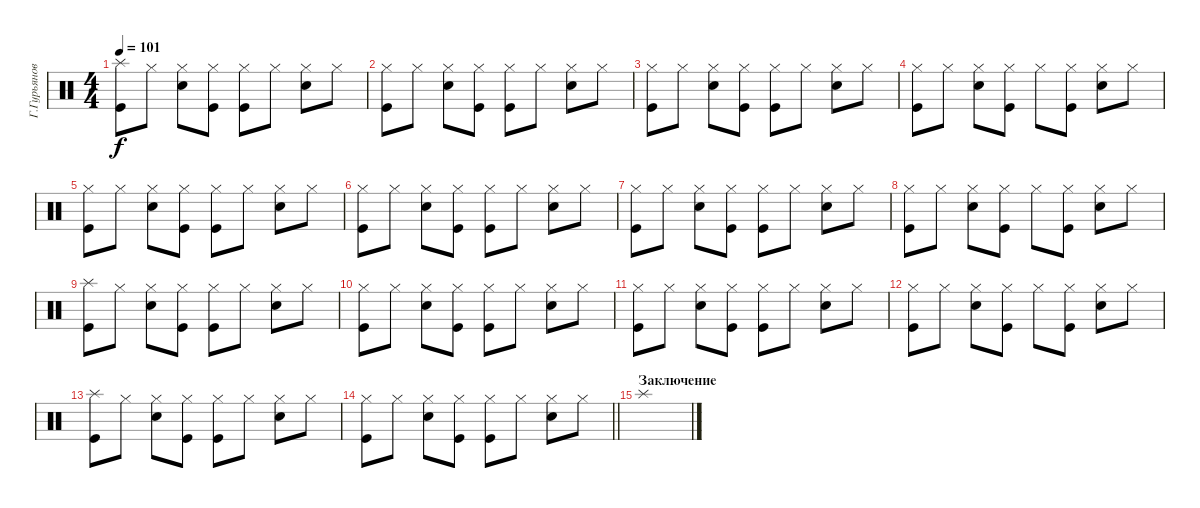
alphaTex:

\track ("Г.Гурьянов" "Г.Гурьянов") {instrument percussion}
\staff {score}
\articulation defaults
\ts (4 4)
\tempo 101
\clef neutral
\ks c
("Splash (hit)" "Kick (hit)").8{dy f} "Hi-Hat (closed)".8 ("Hi-Hat (closed)" "Snare (hit) 2").8 ("Hi-Hat (closed)" "Kick (hit)").8 ("Hi-Hat (closed)" "Kick (hit)").8 "Hi-Hat (closed)".8 ("Hi-Hat (closed)" "Snare (hit) 2").8 "Hi-Hat (closed)".8 |
("Hi-Hat (closed)" "Kick (hit)").8 "Hi-Hat (closed)".8 ("Hi-Hat (closed)" "Snare (hit) 2").8 ("Hi-Hat (closed)" "Kick (hit)").8 ("Hi-Hat (closed)" "Kick (hit)").8 "Hi-Hat (closed)".8 ("Hi-Hat (closed)" "Snare (hit) 2").8 "Hi-Hat (closed)".8 |
("Hi-Hat (closed)" "Kick (hit)").8 "Hi-Hat (closed)".8 ("Hi-Hat (closed)" "Snare (hit) 2").8 ("Hi-Hat (closed)" "Kick (hit)").8 ("Hi-Hat (closed)" "Kick (hit)").8 "Hi-Hat (closed)".8 ("Hi-Hat (closed)" "Snare (hit) 2").8 "Hi-Hat (closed)".8 |
("Hi-Hat (closed)" "Kick (hit)").8 "Hi-Hat (closed)".8 ("Hi-Hat (closed)" "Snare (hit) 2").8 ("Hi-Hat (closed)" "Kick (hit)").8 "Hi-Hat (closed)".8 ("Hi-Hat (closed)" "Kick (hit)").8 ("Hi-Hat (closed)" "Snare (hit) 2").8 "Hi-Hat (closed)".8 |
("Hi-Hat (closed)" "Kick (hit)").8 "Hi-Hat (closed)".8 ("Hi-Hat (closed)" "Snare (hit) 2").8 ("Hi-Hat (closed)" "Kick (hit)").8 ("Hi-Hat (closed)" "Kick (hit)").8 "Hi-Hat (closed)".8 ("Hi-Hat (closed)" "Snare (hit) 2").8 "Hi-Hat (closed)".8 |
("Hi-Hat (closed)" "Kick (hit)").8 "Hi-Hat (closed)".8 ("Hi-Hat (closed)" "Snare (hit) 2").8 ("Hi-Hat (closed)" "Kick (hit)").8 ("Hi-Hat (closed)" "Kick (hit)").8 "Hi-Hat (closed)".8 ("Hi-Hat (closed)" "Snare (hit) 2").8 "Hi-Hat (closed)".8 |
("Hi-Hat (closed)" "Kick (hit)").8 "Hi-Hat (closed)".8 ("Hi-Hat (closed)" "Snare (hit) 2").8 ("Hi-Hat (closed)" "Kick (hit)").8 ("Hi-Hat (closed)" "Kick (hit)").8 "Hi-Hat (closed)".8 ("Hi-Hat (closed)" "Snare (hit) 2").8 "Hi-Hat (closed)".8 |
("Hi-Hat (closed)" "Kick (hit)").8 "Hi-Hat (closed)".8 ("Hi-Hat (closed)" "Snare (hit) 2").8 ("Hi-Hat (closed)" "Kick (hit)").8 "Hi-Hat (closed)".8 ("Hi-Hat (closed)" "Kick (hit)").8 ("Hi-Hat (closed)" "Snare (hit) 2").8 "Hi-Hat (closed)".8 |
("Splash (hit)" "Kick (hit)").8 "Hi-Hat (closed)".8 ("Hi-Hat (closed)" "Snare (hit) 2").8 ("Hi-Hat (closed)" "Kick (hit)").8 ("Hi-Hat (closed)" "Kick (hit)").8 "Hi-Hat (closed)".8 ("Hi-Hat (closed)" "Snare (hit) 2").8 "Hi-Hat (closed)".8 |
("Hi-Hat (closed)" "Kick (hit)").8 "Hi-Hat (closed)".8 ("Hi-Hat (closed)" "Snare (hit) 2").8 ("Hi-Hat (closed)" "Kick (hit)").8 ("Hi-Hat (closed)" "Kick (hit)").8 "Hi-Hat (closed)".8 ("Hi-Hat (closed)" "Snare (hit) 2").8 "Hi-Hat (closed)".8 |
("Hi-Hat (closed)" "Kick (hit)").8 "Hi-Hat (closed)".8 ("Hi-Hat (closed)" "Snare (hit) 2").8 ("Hi-Hat (closed)" "Kick (hit)").8 ("Hi-Hat (closed)" "Kick (hit)").8 "Hi-Hat (closed)".8 ("Hi-Hat (closed)" "Snare (hit) 2").8 "Hi-Hat (closed)".8 |
("Hi-Hat (closed)" "Kick (hit)").8 "Hi-Hat (closed)".8 ("Hi-Hat (closed)" "Snare (hit) 2").8 ("Hi-Hat (closed)" "Kick (hit)").8 "Hi-Hat (closed)".8 ("Hi-Hat (closed)" "Kick (hit)").8 ("Hi-Hat (closed)" "Snare (hit) 2").8 "Hi-Hat (closed)".8 |
("Splash (hit)" "Kick (hit)").8 "Hi-Hat (closed)".8 ("Hi-Hat (closed)" "Snare (hit) 2").8 ("Hi-Hat (closed)" "Kick (hit)").8 ("Hi-Hat (closed)" "Kick (hit)").8 "Hi-Hat (closed)".8 ("Hi-Hat (closed)" "Snare (hit) 2").8 "Hi-Hat (closed)".8 |
\barLineRight lightlight
("Hi-Hat (closed)" "Kick (hit)").8 "Hi-Hat (closed)".8 ("Hi-Hat (closed)" "Snare (hit) 2").8 ("Hi-Hat (closed)" "Kick (hit)").8 ("Hi-Hat (closed)" "Kick (hit)").8 "Hi-Hat (closed)".8 ("Hi-Hat (closed)" "Snare (hit) 2").8 "Hi-Hat (closed)".8 |
\section ("" "Заключение")
"Splash (hit)".1
